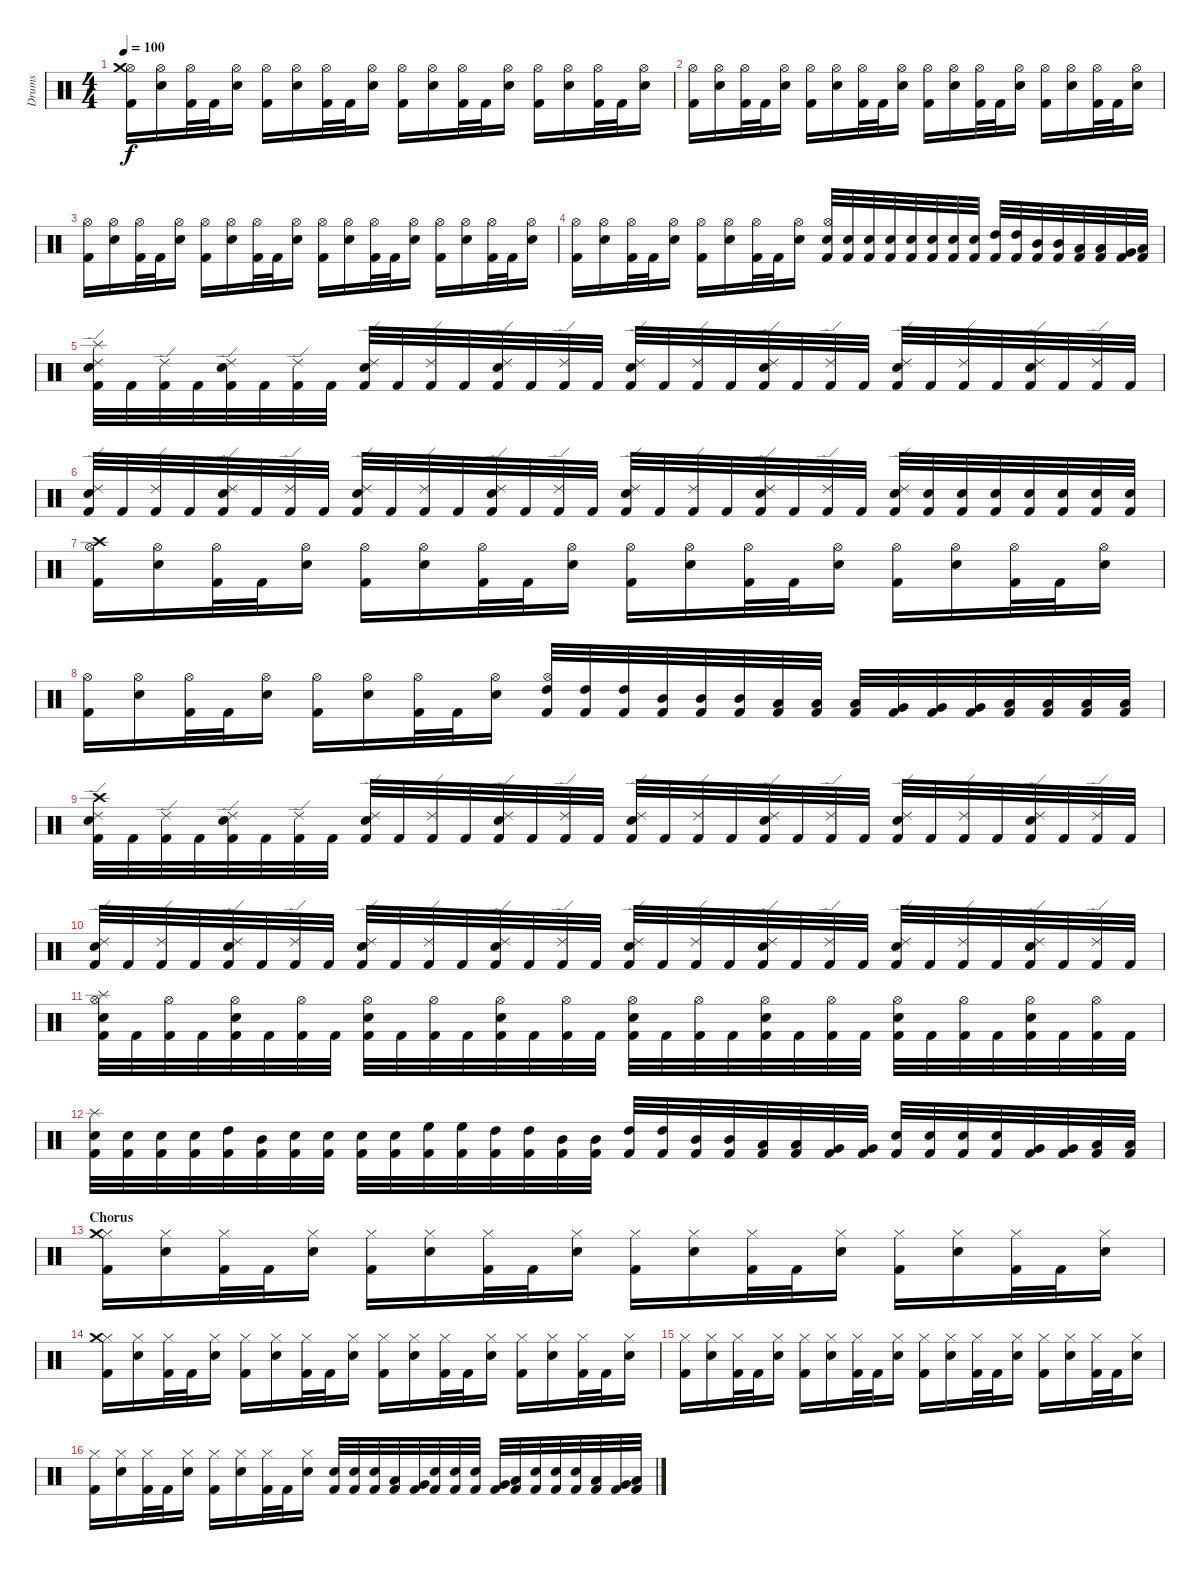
\track ("Drums" "Drums") {instrument percussion}
\staff {score}
\articulation defaults
\ts (4 4)
\section ("" "")
\tempo 100
\clef neutral
\ks c
("Kick (hit) 2" "Hi-Hat (open)" "Crash medium (hit)").16{dy f} ("Snare (hit) 2" "Hi-Hat (open)").16 ("Kick (hit) 2" "Hi-Hat (open)").32 "Kick (hit) 2".32 ("Snare (hit) 2" "Hi-Hat (open)").16 ("Kick (hit) 2" "Hi-Hat (open)").16 ("Snare (hit) 2" "Hi-Hat (open)").16 ("Kick (hit) 2" "Hi-Hat (open)").32 "Kick (hit) 2".32 ("Snare (hit) 2" "Hi-Hat (open)").16 ("Kick (hit) 2" "Hi-Hat (open)").16 ("Snare (hit) 2" "Hi-Hat (open)").16 ("Kick (hit) 2" "Hi-Hat (open)").32 "Kick (hit) 2".32 ("Snare (hit) 2" "Hi-Hat (open)").16 ("Kick (hit) 2" "Hi-Hat (open)").16 ("Snare (hit) 2" "Hi-Hat (open)").16 ("Kick (hit) 2" "Hi-Hat (open)").32 "Kick (hit) 2".32 ("Snare (hit) 2" "Hi-Hat (open)").16 |
("Kick (hit) 2" "Hi-Hat (open)").16 ("Snare (hit) 2" "Hi-Hat (open)").16 ("Kick (hit) 2" "Hi-Hat (open)").32 "Kick (hit) 2".32 ("Snare (hit) 2" "Hi-Hat (open)").16 ("Kick (hit) 2" "Hi-Hat (open)").16 ("Snare (hit) 2" "Hi-Hat (open)").16 ("Kick (hit) 2" "Hi-Hat (open)").32 "Kick (hit) 2".32 ("Snare (hit) 2" "Hi-Hat (open)").16 ("Kick (hit) 2" "Hi-Hat (open)").16 ("Snare (hit) 2" "Hi-Hat (open)").16 ("Kick (hit) 2" "Hi-Hat (open)").32 "Kick (hit) 2".32 ("Snare (hit) 2" "Hi-Hat (open)").16 ("Kick (hit) 2" "Hi-Hat (open)").16 ("Snare (hit) 2" "Hi-Hat (open)").16 ("Kick (hit) 2" "Hi-Hat (open)").32 "Kick (hit) 2".32 ("Snare (hit) 2" "Hi-Hat (open)").16 |
("Kick (hit) 2" "Hi-Hat (open)").16 ("Snare (hit) 2" "Hi-Hat (open)").16 ("Kick (hit) 2" "Hi-Hat (open)").32 "Kick (hit) 2".32 ("Snare (hit) 2" "Hi-Hat (open)").16 ("Kick (hit) 2" "Hi-Hat (open)").16 ("Snare (hit) 2" "Hi-Hat (open)").16 ("Kick (hit) 2" "Hi-Hat (open)").32 "Kick (hit) 2".32 ("Snare (hit) 2" "Hi-Hat (open)").16 ("Kick (hit) 2" "Hi-Hat (open)").16 ("Snare (hit) 2" "Hi-Hat (open)").16 ("Kick (hit) 2" "Hi-Hat (open)").32 "Kick (hit) 2".32 ("Snare (hit) 2" "Hi-Hat (open)").16 ("Kick (hit) 2" "Hi-Hat (open)").16 ("Snare (hit) 2" "Hi-Hat (open)").16 ("Kick (hit) 2" "Hi-Hat (open)").32 "Kick (hit) 2".32 ("Snare (hit) 2" "Hi-Hat (open)").16 |
("Kick (hit) 2" "Hi-Hat (open)").16 ("Snare (hit) 2" "Hi-Hat (open)").16 ("Kick (hit) 2" "Hi-Hat (open)").32 "Kick (hit) 2".32 ("Snare (hit) 2" "Hi-Hat (open)").16 ("Kick (hit) 2" "Hi-Hat (open)").16 ("Snare (hit) 2" "Hi-Hat (open)").16 ("Kick (hit) 2" "Hi-Hat (open)").32 "Kick (hit) 2".32 ("Snare (hit) 2" "Hi-Hat (open)").16 ("Kick (hit) 2" "Snare (hit) 2" "Hi-Hat (open)").32 ("Kick (hit) 2" "Snare (hit) 2").32 ("Kick (hit) 2" "Snare (hit) 2").32 ("Kick (hit) 2" "Snare (hit) 2").32 ("Kick (hit) 2" "Snare (hit) 2").32 ("Kick (hit) 2" "Snare (hit) 2").32 ("Kick (hit) 2" "Snare (hit) 2").32 ("Kick (hit) 2" "Snare (hit) 2").32 ("Kick (hit) 2" "High Tom (hit)").32 ("Kick (hit) 2" "High Tom (hit)").32 ("Kick (hit) 2" "Mid Tom (hit)").32 ("Kick (hit) 2" "Mid Tom (hit)").32 ("Kick (hit) 2" "Low Tom (hit)").32 ("Kick (hit) 2" "Low Tom (hit)").32 ("Kick (hit) 2" "Very Low Tom (hit)").32 ("Kick (hit) 2" "Low Floor Tom (hit)").32 |
\section ("" "")
("Kick (hit) 2" "Snare (hit) 2" "Ride (edge) 2" "Splash (hit)").32 "Kick (hit) 2".32 ("Kick (hit) 2" "Ride (edge) 2").32 "Kick (hit) 2".32 ("Kick (hit) 2" "Snare (hit) 2" "Ride (edge) 2").32 "Kick (hit) 2".32 ("Kick (hit) 2" "Ride (edge) 2").32 "Kick (hit) 2".32 ("Kick (hit) 2" "Snare (hit) 2" "Ride (edge) 2").32 "Kick (hit) 2".32 ("Kick (hit) 2" "Ride (edge) 2").32 "Kick (hit) 2".32 ("Kick (hit) 2" "Snare (hit) 2" "Ride (edge) 2").32 "Kick (hit) 2".32 ("Kick (hit) 2" "Ride (edge) 2").32 "Kick (hit) 2".32 ("Kick (hit) 2" "Snare (hit) 2" "Ride (edge) 2").32 "Kick (hit) 2".32 ("Kick (hit) 2" "Ride (edge) 2").32 "Kick (hit) 2".32 ("Kick (hit) 2" "Snare (hit) 2" "Ride (edge) 2").32 "Kick (hit) 2".32 ("Kick (hit) 2" "Ride (edge) 2").32 "Kick (hit) 2".32 ("Kick (hit) 2" "Snare (hit) 2" "Ride (edge) 2").32 "Kick (hit) 2".32 ("Kick (hit) 2" "Ride (edge) 2").32 "Kick (hit) 2".32 ("Kick (hit) 2" "Snare (hit) 2" "Ride (edge) 2").32 "Kick (hit) 2".32 ("Kick (hit) 2" "Ride (edge) 2").32 "Kick (hit) 2".32 |
("Kick (hit) 2" "Snare (hit) 2" "Ride (edge) 2").32 "Kick (hit) 2".32 ("Kick (hit) 2" "Ride (edge) 2").32 "Kick (hit) 2".32 ("Kick (hit) 2" "Snare (hit) 2" "Ride (edge) 2").32 "Kick (hit) 2".32 ("Kick (hit) 2" "Ride (edge) 2").32 "Kick (hit) 2".32 ("Kick (hit) 2" "Snare (hit) 2" "Ride (edge) 2").32 "Kick (hit) 2".32 ("Kick (hit) 2" "Ride (edge) 2").32 "Kick (hit) 2".32 ("Kick (hit) 2" "Snare (hit) 2" "Ride (edge) 2").32 "Kick (hit) 2".32 ("Kick (hit) 2" "Ride (edge) 2").32 "Kick (hit) 2".32 ("Kick (hit) 2" "Snare (hit) 2" "Ride (edge) 2").32 "Kick (hit) 2".32 ("Kick (hit) 2" "Ride (edge) 2").32 "Kick (hit) 2".32 ("Kick (hit) 2" "Snare (hit) 2" "Ride (edge) 2").32 "Kick (hit) 2".32 ("Kick (hit) 2" "Ride (edge) 2").32 "Kick (hit) 2".32 ("Kick (hit) 2" "Snare (hit) 2" "Ride (edge) 2").32 ("Kick (hit) 2" "Snare (hit) 2").32 ("Kick (hit) 2" "Snare (hit) 2").32 ("Kick (hit) 2" "Snare (hit) 2").32 ("Kick (hit) 2" "Snare (hit) 2").32 ("Kick (hit) 2" "Snare (hit) 2").32 ("Kick (hit) 2" "Snare (hit) 2").32 ("Kick (hit) 2" "Snare (hit) 2").32 |
("Kick (hit) 2" "Hi-Hat (open)" "Crash high (hit)").16 ("Snare (hit) 2" "Hi-Hat (open)").16 ("Kick (hit) 2" "Hi-Hat (open)").32 "Kick (hit) 2".32 ("Snare (hit) 2" "Hi-Hat (open)").16 ("Kick (hit) 2" "Hi-Hat (open)").16 ("Snare (hit) 2" "Hi-Hat (open)").16 ("Kick (hit) 2" "Hi-Hat (open)").32 "Kick (hit) 2".32 ("Snare (hit) 2" "Hi-Hat (open)").16 ("Kick (hit) 2" "Hi-Hat (open)").16 ("Snare (hit) 2" "Hi-Hat (open)").16 ("Kick (hit) 2" "Hi-Hat (open)").32 "Kick (hit) 2".32 ("Snare (hit) 2" "Hi-Hat (open)").16 ("Kick (hit) 2" "Hi-Hat (open)").16 ("Snare (hit) 2" "Hi-Hat (open)").16 ("Kick (hit) 2" "Hi-Hat (open)").32 "Kick (hit) 2".32 ("Snare (hit) 2" "Hi-Hat (open)").16 |
("Kick (hit) 2" "Hi-Hat (open)").16 ("Snare (hit) 2" "Hi-Hat (open)").16 ("Kick (hit) 2" "Hi-Hat (open)").32 "Kick (hit) 2".32 ("Snare (hit) 2" "Hi-Hat (open)").16 ("Kick (hit) 2" "Hi-Hat (open)").16 ("Snare (hit) 2" "Hi-Hat (open)").16 ("Kick (hit) 2" "Hi-Hat (open)").32 "Kick (hit) 2".32 ("Snare (hit) 2" "Hi-Hat (open)").16 ("Kick (hit) 2" "High Tom (hit)" "Hi-Hat (open)").32 ("Kick (hit) 2" "High Tom (hit)").32 ("Kick (hit) 2" "High Tom (hit)").32 ("Kick (hit) 2" "Mid Tom (hit)").32 ("Kick (hit) 2" "Mid Tom (hit)").32 ("Kick (hit) 2" "Mid Tom (hit)").32 ("Kick (hit) 2" "Low Tom (hit)").32 ("Kick (hit) 2" "Low Tom (hit)").32 ("Kick (hit) 2" "Low Tom (hit)").32 ("Kick (hit) 2" "Very Low Tom (hit)").32 ("Kick (hit) 2" "Very Low Tom (hit)").32 ("Kick (hit) 2" "Very Low Tom (hit)").32 ("Kick (hit) 2" "Low Floor Tom (hit)").32 ("Kick (hit) 2" "Low Floor Tom (hit)").32 ("Kick (hit) 2" "Low Floor Tom (hit)").32 ("Kick (hit) 2" "Low Floor Tom (hit)").32 |
("Kick (hit) 2" "Snare (hit) 2" "Ride (edge) 2" "Crash high (hit)").32 "Kick (hit) 2".32 ("Kick (hit) 2" "Ride (edge) 2").32 "Kick (hit) 2".32 ("Kick (hit) 2" "Snare (hit) 2" "Ride (edge) 2").32 "Kick (hit) 2".32 ("Kick (hit) 2" "Ride (edge) 2").32 "Kick (hit) 2".32 ("Kick (hit) 2" "Snare (hit) 2" "Ride (edge) 2").32 "Kick (hit) 2".32 ("Kick (hit) 2" "Ride (edge) 2").32 "Kick (hit) 2".32 ("Kick (hit) 2" "Snare (hit) 2" "Ride (edge) 2").32 "Kick (hit) 2".32 ("Kick (hit) 2" "Ride (edge) 2").32 "Kick (hit) 2".32 ("Kick (hit) 2" "Snare (hit) 2" "Ride (edge) 2").32 "Kick (hit) 2".32 ("Kick (hit) 2" "Ride (edge) 2").32 "Kick (hit) 2".32 ("Kick (hit) 2" "Snare (hit) 2" "Ride (edge) 2").32 "Kick (hit) 2".32 ("Kick (hit) 2" "Ride (edge) 2").32 "Kick (hit) 2".32 ("Kick (hit) 2" "Snare (hit) 2" "Ride (edge) 2").32 "Kick (hit) 2".32 ("Kick (hit) 2" "Ride (edge) 2").32 "Kick (hit) 2".32 ("Kick (hit) 2" "Snare (hit) 2" "Ride (edge) 2").32 "Kick (hit) 2".32 ("Kick (hit) 2" "Ride (edge) 2").32 "Kick (hit) 2".32 |
("Kick (hit) 2" "Snare (hit) 2" "Ride (edge) 2").32 "Kick (hit) 2".32 ("Kick (hit) 2" "Ride (edge) 2").32 "Kick (hit) 2".32 ("Kick (hit) 2" "Snare (hit) 2" "Ride (edge) 2").32 "Kick (hit) 2".32 ("Kick (hit) 2" "Ride (edge) 2").32 "Kick (hit) 2".32 ("Kick (hit) 2" "Snare (hit) 2" "Ride (edge) 2").32 "Kick (hit) 2".32 ("Kick (hit) 2" "Ride (edge) 2").32 "Kick (hit) 2".32 ("Kick (hit) 2" "Snare (hit) 2" "Ride (edge) 2").32 "Kick (hit) 2".32 ("Kick (hit) 2" "Ride (edge) 2").32 "Kick (hit) 2".32 ("Kick (hit) 2" "Snare (hit) 2" "Ride (edge) 2").32 "Kick (hit) 2".32 ("Kick (hit) 2" "Ride (edge) 2").32 "Kick (hit) 2".32 ("Kick (hit) 2" "Snare (hit) 2" "Ride (edge) 2").32 "Kick (hit) 2".32 ("Kick (hit) 2" "Ride (edge) 2").32 "Kick (hit) 2".32 ("Kick (hit) 2" "Snare (hit) 2" "Ride (edge) 2").32 "Kick (hit) 2".32 ("Kick (hit) 2" "Ride (edge) 2").32 "Kick (hit) 2".32 ("Kick (hit) 2" "Snare (hit) 2" "Ride (edge) 2").32 "Kick (hit) 2".32 ("Kick (hit) 2" "Ride (edge) 2").32 "Kick (hit) 2".32 |
("Kick (hit) 2" "Snare (hit) 2" "Hi-Hat (open)" "Splash (hit)").32 "Kick (hit) 2".32 ("Kick (hit) 2" "Hi-Hat (open)").32 "Kick (hit) 2".32 ("Kick (hit) 2" "Snare (hit) 2" "Hi-Hat (open)").32 "Kick (hit) 2".32 ("Kick (hit) 2" "Hi-Hat (open)").32 "Kick (hit) 2".32 ("Kick (hit) 2" "Snare (hit) 2" "Hi-Hat (open)").32 "Kick (hit) 2".32 ("Kick (hit) 2" "Hi-Hat (open)").32 "Kick (hit) 2".32 ("Kick (hit) 2" "Snare (hit) 2" "Hi-Hat (open)").32 "Kick (hit) 2".32 ("Kick (hit) 2" "Hi-Hat (open)").32 "Kick (hit) 2".32 ("Kick (hit) 2" "Snare (hit) 2" "Hi-Hat (open)").32 "Kick (hit) 2".32 ("Kick (hit) 2" "Hi-Hat (open)").32 "Kick (hit) 2".32 ("Kick (hit) 2" "Snare (hit) 2" "Hi-Hat (open)").32 "Kick (hit) 2".32 ("Kick (hit) 2" "Hi-Hat (open)").32 "Kick (hit) 2".32 ("Kick (hit) 2" "Snare (hit) 2" "Hi-Hat (open)").32 "Kick (hit) 2".32 ("Kick (hit) 2" "Hi-Hat (open)").32 "Kick (hit) 2".32 ("Kick (hit) 2" "Snare (hit) 2" "Hi-Hat (open)").32 "Kick (hit) 2".32 ("Kick (hit) 2" "Hi-Hat (open)").32 "Kick (hit) 2".32 |
("Kick (hit) 2" "Snare (hit) 2" "Splash (hit)").32 ("Kick (hit) 2" "Snare (hit) 2").32 ("Kick (hit) 2" "Snare (hit) 2").32 ("Kick (hit) 2" "Snare (hit) 2").32 ("Kick (hit) 2" "High Tom (hit)").32 ("Kick (hit) 2" "Mid Tom (hit)").32 ("Kick (hit) 2" "Snare (hit) 2").32 ("Kick (hit) 2" "Snare (hit) 2").32 ("Kick (hit) 2" "Snare (hit) 2").32 ("Kick (hit) 2" "Snare (hit) 2").32 ("Kick (hit) 2" "High Floor Tom (hit)").32 ("Kick (hit) 2" "High Floor Tom (hit)").32 ("Kick (hit) 2" "High Tom (hit)").32 ("Kick (hit) 2" "High Tom (hit)").32 ("Kick (hit) 2" "Mid Tom (hit)").32 ("Kick (hit) 2" "Mid Tom (hit)").32 ("Kick (hit) 2" "High Tom (hit)").32 ("Kick (hit) 2" "High Tom (hit)").32 ("Kick (hit) 2" "Mid Tom (hit)").32 ("Kick (hit) 2" "Mid Tom (hit)").32 ("Kick (hit) 2" "Low Tom (hit)").32 ("Kick (hit) 2" "Low Tom (hit)").32 ("Kick (hit) 2" "Very Low Tom (hit)").32 ("Kick (hit) 2" "Very Low Tom (hit)").32 ("Kick (hit) 2" "Snare (hit) 2").32 ("Kick (hit) 2" "Snare (hit) 2").32 ("Kick (hit) 2" "Snare (hit) 2").32 ("Kick (hit) 2" "Snare (hit) 2").32 ("Kick (hit) 2" "Very Low Tom (hit)").32 ("Kick (hit) 2" "Very Low Tom (hit)").32 ("Kick (hit) 2" "Low Floor Tom (hit)").32 ("Kick (hit) 2" "Low Floor Tom (hit)").32 |
\section ("" "Chorus")
("Kick (hit) 2" "Hi-Hat (closed)" "Crash medium (hit)").16 ("Snare (hit) 2" "Hi-Hat (closed)").16 ("Kick (hit) 2" "Hi-Hat (closed)").32 "Kick (hit) 2".32 ("Snare (hit) 2" "Hi-Hat (closed)").16 ("Kick (hit) 2" "Hi-Hat (closed)").16 ("Snare (hit) 2" "Hi-Hat (closed)").16 ("Kick (hit) 2" "Hi-Hat (closed)").32 "Kick (hit) 2".32 ("Snare (hit) 2" "Hi-Hat (closed)").16 ("Kick (hit) 2" "Hi-Hat (closed)").16 ("Snare (hit) 2" "Hi-Hat (closed)").16 ("Kick (hit) 2" "Hi-Hat (closed)").32 "Kick (hit) 2".32 ("Snare (hit) 2" "Hi-Hat (closed)").16 ("Kick (hit) 2" "Hi-Hat (closed)").16 ("Snare (hit) 2" "Hi-Hat (closed)").16 ("Kick (hit) 2" "Hi-Hat (closed)").32 "Kick (hit) 2".32 ("Snare (hit) 2" "Hi-Hat (closed)").16 |
("Kick (hit) 2" "Hi-Hat (closed)" "Crash medium (hit)").16 ("Snare (hit) 2" "Hi-Hat (closed)").16 ("Kick (hit) 2" "Hi-Hat (closed)").32 "Kick (hit) 2".32 ("Snare (hit) 2" "Hi-Hat (closed)").16 ("Kick (hit) 2" "Hi-Hat (closed)").16 ("Snare (hit) 2" "Hi-Hat (closed)").16 ("Kick (hit) 2" "Hi-Hat (closed)").32 "Kick (hit) 2".32 ("Snare (hit) 2" "Hi-Hat (closed)").16 ("Kick (hit) 2" "Hi-Hat (closed)").16 ("Snare (hit) 2" "Hi-Hat (closed)").16 ("Kick (hit) 2" "Hi-Hat (closed)").32 "Kick (hit) 2".32 ("Snare (hit) 2" "Hi-Hat (closed)").16 ("Kick (hit) 2" "Hi-Hat (closed)").16 ("Snare (hit) 2" "Hi-Hat (closed)").16 ("Kick (hit) 2" "Hi-Hat (closed)").32 "Kick (hit) 2".32 ("Snare (hit) 2" "Hi-Hat (closed)").16 |
("Kick (hit) 2" "Hi-Hat (closed)").16 ("Snare (hit) 2" "Hi-Hat (closed)").16 ("Kick (hit) 2" "Hi-Hat (closed)").32 "Kick (hit) 2".32 ("Snare (hit) 2" "Hi-Hat (closed)").16 ("Kick (hit) 2" "Hi-Hat (closed)").16 ("Snare (hit) 2" "Hi-Hat (closed)").16 ("Kick (hit) 2" "Hi-Hat (closed)").32 "Kick (hit) 2".32 ("Snare (hit) 2" "Hi-Hat (closed)").16 ("Kick (hit) 2" "Hi-Hat (closed)").16 ("Snare (hit) 2" "Hi-Hat (closed)").16 ("Kick (hit) 2" "Hi-Hat (closed)").32 "Kick (hit) 2".32 ("Snare (hit) 2" "Hi-Hat (closed)").16 ("Kick (hit) 2" "Hi-Hat (closed)").16 ("Snare (hit) 2" "Hi-Hat (closed)").16 ("Kick (hit) 2" "Hi-Hat (closed)").32 "Kick (hit) 2".32 ("Snare (hit) 2" "Hi-Hat (closed)").16 |
("Kick (hit) 2" "Hi-Hat (closed)").16 ("Snare (hit) 2" "Hi-Hat (closed)").16 ("Kick (hit) 2" "Hi-Hat (closed)").32 "Kick (hit) 2".32 ("Snare (hit) 2" "Hi-Hat (closed)").16 ("Kick (hit) 2" "Hi-Hat (closed)").16 ("Snare (hit) 2" "Hi-Hat (closed)").16 ("Kick (hit) 2" "Hi-Hat (closed)").32 "Kick (hit) 2".32 ("Snare (hit) 2" "Hi-Hat (closed)").16 ("Kick (hit) 2" "Snare (hit) 2").32 ("Kick (hit) 2" "Snare (hit) 2").32 ("Kick (hit) 2" "Snare (hit) 2").32 ("Kick (hit) 2" "Low Tom (hit)").32 ("Kick (hit) 2" "Very Low Tom (hit)").32 ("Kick (hit) 2" "Snare (hit) 2").32 ("Kick (hit) 2" "Snare (hit) 2").32 ("Kick (hit) 2" "Snare (hit) 2").32 ("Kick (hit) 2" "Very Low Tom (hit)").32 ("Kick (hit) 2" "Low Floor Tom (hit)").32 ("Kick (hit) 2" "Snare (hit) 2").32 ("Kick (hit) 2" "Snare (hit) 2").32 ("Kick (hit) 2" "Snare (hit) 2").32 ("Kick (hit) 2" "Low Tom (hit)").32 ("Kick (hit) 2" "Very Low Tom (hit)").32 ("Kick (hit) 2" "Low Floor Tom (hit)").32
